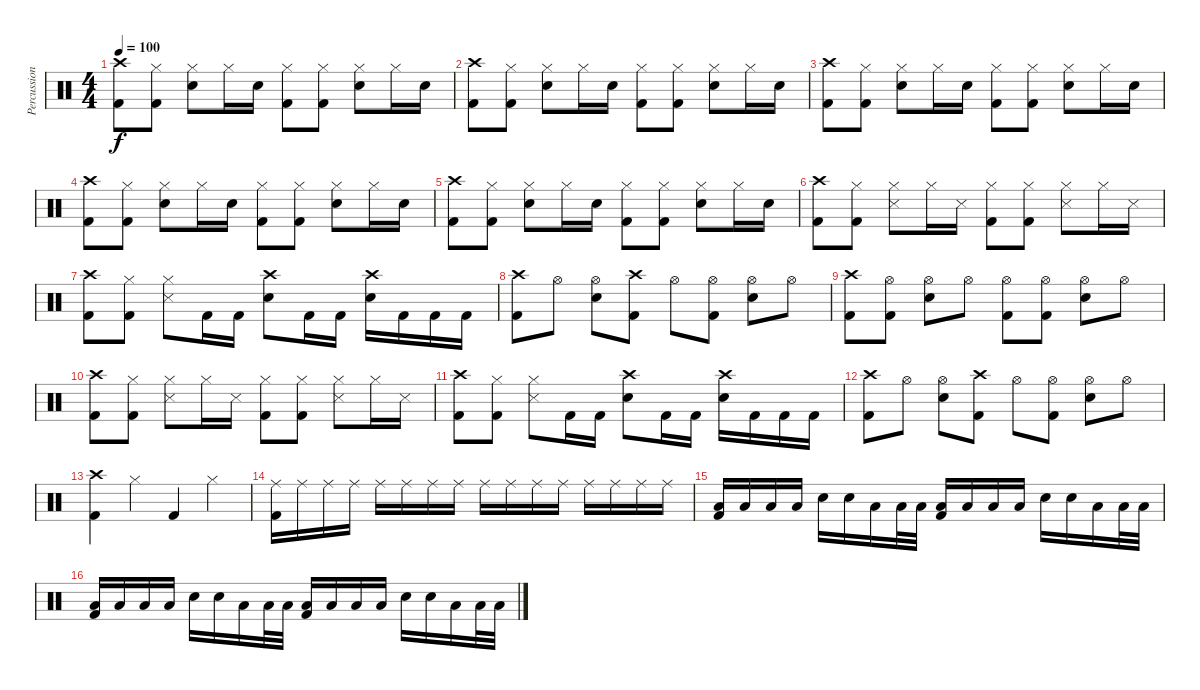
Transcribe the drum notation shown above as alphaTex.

\track ("Percussion" "Percussion") {instrument percussion}
\staff {score}
\articulation defaults
\ts (4 4)
\tempo 100
\clef neutral
\ks c
("Crash high (hit)" "Kick (hit) 2").8{dy f} ("Hi-Hat (closed)" "Kick (hit) 2").8 ("Hi-Hat (closed)" "Snare (hit) 2").8 "Hi-Hat (closed)".16 "Snare (hit) 2".16 ("Hi-Hat (closed)" "Kick (hit) 2").8 ("Hi-Hat (closed)" "Kick (hit) 2").8 ("Hi-Hat (closed)" "Snare (hit) 2").8 "Hi-Hat (closed)".16 "Snare (hit) 2".16 |
("Crash high (hit)" "Kick (hit) 2").8 ("Hi-Hat (closed)" "Kick (hit) 2").8 ("Hi-Hat (closed)" "Snare (hit) 2").8 "Hi-Hat (closed)".16 "Snare (hit) 2".16 ("Hi-Hat (closed)" "Kick (hit) 2").8 ("Hi-Hat (closed)" "Kick (hit) 2").8 ("Hi-Hat (closed)" "Snare (hit) 2").8 "Hi-Hat (closed)".16 "Snare (hit) 2".16 |
("Crash high (hit)" "Kick (hit) 2").8 ("Hi-Hat (closed)" "Kick (hit) 2").8 ("Hi-Hat (closed)" "Snare (hit) 2").8 "Hi-Hat (closed)".16 "Snare (hit) 2".16 ("Hi-Hat (closed)" "Kick (hit) 2").8 ("Hi-Hat (closed)" "Kick (hit) 2").8 ("Hi-Hat (closed)" "Snare (hit) 2").8 "Hi-Hat (closed)".16 "Snare (hit) 2".16 |
("Crash high (hit)" "Kick (hit) 2").8 ("Hi-Hat (closed)" "Kick (hit) 2").8 ("Hi-Hat (closed)" "Snare (hit) 2").8 "Hi-Hat (closed)".16 "Snare (hit) 2".16 ("Hi-Hat (closed)" "Kick (hit) 2").8 ("Hi-Hat (closed)" "Kick (hit) 2").8 ("Hi-Hat (closed)" "Snare (hit) 2").8 "Hi-Hat (closed)".16 "Snare (hit) 2".16 |
("Crash high (hit)" "Kick (hit) 2").8 ("Hi-Hat (closed)" "Kick (hit) 2").8 ("Hi-Hat (closed)" "Snare (hit) 2").8 "Hi-Hat (closed)".16 "Snare (hit) 2".16 ("Hi-Hat (closed)" "Kick (hit) 2").8 ("Hi-Hat (closed)" "Kick (hit) 2").8 ("Hi-Hat (closed)" "Snare (hit) 2").8 "Hi-Hat (closed)".16 "Snare (hit) 2".16 |
("Crash high (hit)" "Kick (hit) 2").8 ("Hi-Hat (closed)" "Kick (hit) 2").8 ("Hi-Hat (closed)" "Snare (side stick) 3").8 "Hi-Hat (closed)".16 "Snare (side stick) 3".16 ("Hi-Hat (closed)" "Kick (hit) 2").8 ("Hi-Hat (closed)" "Kick (hit) 2").8 ("Hi-Hat (closed)" "Snare (side stick) 3").8 "Hi-Hat (closed)".16 "Snare (side stick) 3".16 |
("Crash high (hit)" "Kick (hit) 2").8 ("Hi-Hat (closed)" "Kick (hit) 2").8 ("Hi-Hat (closed)" "Snare (side stick) 3").8 "Kick (hit) 2".16 "Kick (hit) 2".16 ("Crash high (hit)" "Snare (hit) 2").8 "Kick (hit) 2".16 "Kick (hit) 2".16 ("Crash high (hit)" "Snare (hit) 2").16 "Kick (hit) 2".16 "Kick (hit) 2".16 "Kick (hit) 2".16 |
("Crash high (hit)" "Kick (hit) 2").8 "Hi-Hat (open)".8 ("Hi-Hat (open)" "Snare (hit) 2").8 ("Crash high (hit)" "Kick (hit) 2").8 "Hi-Hat (open)".8 ("Hi-Hat (open)" "Kick (hit) 2").8 ("Hi-Hat (open)" "Snare (hit) 2").8 "Hi-Hat (open)".8 |
("Crash high (hit)" "Kick (hit) 2").8 ("Hi-Hat (open)" "Kick (hit) 2").8 ("Hi-Hat (open)" "Snare (hit) 2").8 "Hi-Hat (open)".8 ("Hi-Hat (open)" "Kick (hit) 2").8 ("Hi-Hat (open)" "Kick (hit) 2").8 ("Hi-Hat (open)" "Snare (hit) 2").8 "Hi-Hat (open)".8 |
("Crash high (hit)" "Kick (hit) 2").8 ("Hi-Hat (closed)" "Kick (hit) 2").8 ("Hi-Hat (closed)" "Snare (side stick) 3").8 "Hi-Hat (closed)".16 "Snare (side stick) 3".16 ("Hi-Hat (closed)" "Kick (hit) 2").8 ("Hi-Hat (closed)" "Kick (hit) 2").8 ("Hi-Hat (closed)" "Snare (side stick) 3").8 "Hi-Hat (closed)".16 "Snare (side stick) 3".16 |
("Crash high (hit)" "Kick (hit) 2").8 ("Hi-Hat (closed)" "Kick (hit) 2").8 ("Hi-Hat (closed)" "Snare (side stick) 3").8 "Kick (hit) 2".16 "Kick (hit) 2".16 ("Crash high (hit)" "Snare (hit) 2").8 "Kick (hit) 2".16 "Kick (hit) 2".16 ("Crash high (hit)" "Snare (hit) 2").16 "Kick (hit) 2".16 "Kick (hit) 2".16 "Kick (hit) 2".16 |
("Crash high (hit)" "Kick (hit) 2").8 "Hi-Hat (open)".8 ("Hi-Hat (open)" "Snare (hit) 2").8 ("Crash high (hit)" "Kick (hit) 2").8 "Hi-Hat (open)".8 ("Hi-Hat (open)" "Kick (hit) 2").8 ("Hi-Hat (open)" "Snare (hit) 2").8 "Hi-Hat (open)".8 |
("Crash high (hit)" "Kick (hit) 2").4 "Hi-Hat (closed)".4 "Kick (hit) 2".4 "Hi-Hat (closed)".4 |
("Ride (middle)" "Kick (hit) 2").16 "Ride (middle)".16 "Ride (middle)".16 "Ride (middle)".16 "Ride (middle)".16 "Ride (middle)".16 "Ride (middle)".16 "Ride (middle)".16 "Ride (middle)".16 "Ride (middle)".16 "Ride (middle)".16 "Ride (middle)".16 "Ride (middle)".16 "Ride (middle)".16 "Ride (middle)".16 "Ride (middle)".16 |
("Low Floor Tom (hit)" "Kick (hit) 2").16 "Low Floor Tom (hit)".16 "Low Floor Tom (hit)".16 "Low Floor Tom (hit)".16 "Snare (hit) 2".16 "Snare (hit) 2".16 "Low Floor Tom (hit)".16 "Low Floor Tom (hit)".32 "Low Floor Tom (hit)".32 ("Low Floor Tom (hit)" "Kick (hit) 2").16 "Low Floor Tom (hit)".16 "Low Floor Tom (hit)".16 "Low Floor Tom (hit)".16 "Snare (hit) 2".16 "Snare (hit) 2".16 "Low Floor Tom (hit)".16 "Low Floor Tom (hit)".32 "Low Floor Tom (hit)".32 |
("Low Floor Tom (hit)" "Kick (hit) 2").16 "Low Floor Tom (hit)".16 "Low Floor Tom (hit)".16 "Low Floor Tom (hit)".16 "Snare (hit) 2".16 "Snare (hit) 2".16 "Low Floor Tom (hit)".16 "Low Floor Tom (hit)".32 "Low Floor Tom (hit)".32 ("Low Floor Tom (hit)" "Kick (hit) 2").16 "Low Floor Tom (hit)".16 "Low Floor Tom (hit)".16 "Low Floor Tom (hit)".16 "Snare (hit) 2".16 "Snare (hit) 2".16 "Low Floor Tom (hit)".16 "Low Floor Tom (hit)".32 "Low Floor Tom (hit)".32
